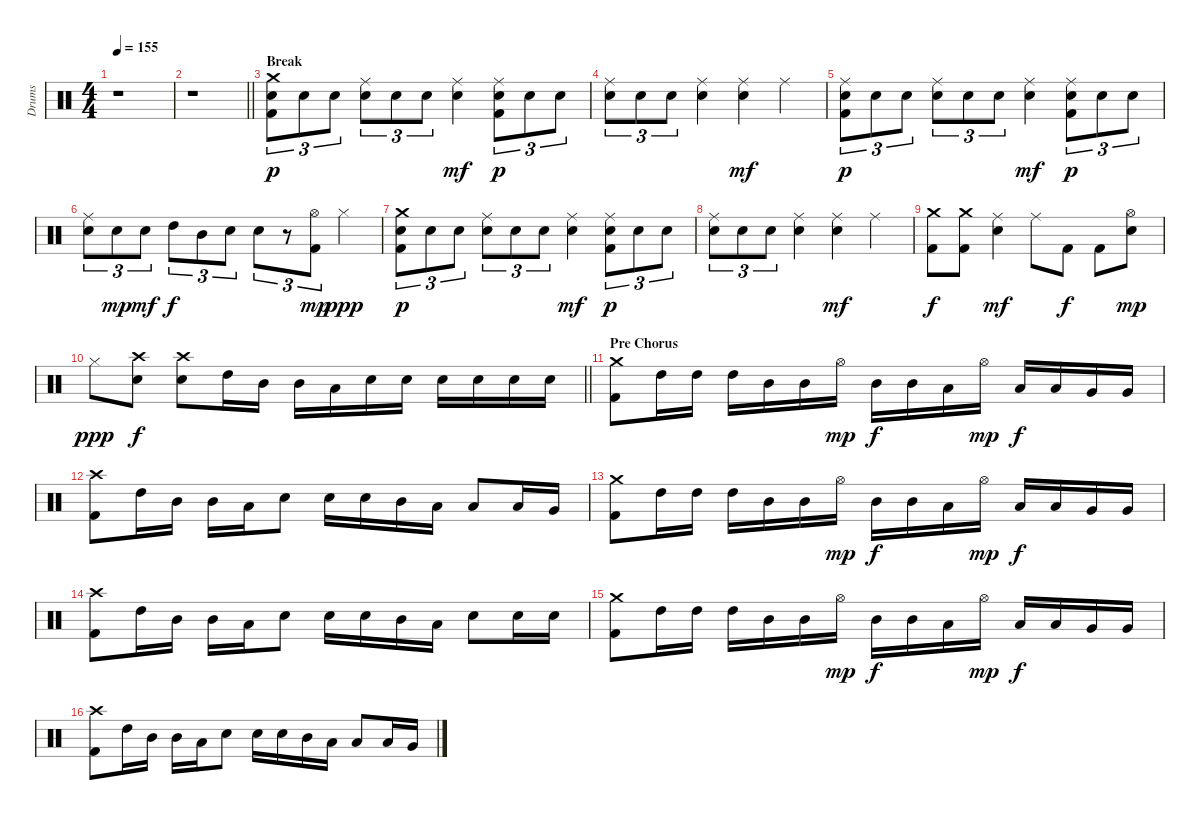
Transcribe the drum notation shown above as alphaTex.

\track ("Drums" "Drums") {instrument percussion}
\staff {score}
\articulation defaults
\ts (4 4)
\tempo 155
\clef neutral
\ks c
r.1{dy ppp} |
\barLineRight lightlight
r.1 |
\section ("" "Break")
("Crash medium (hit)" "Snare (hit) 2" "Kick (hit) 2").8{tu (3 2) dy p} "Snare (hit) 2".8{tu (3 2)} "Snare (hit) 2".8{tu (3 2)} ("Ride (middle)" "Snare (hit) 2").8{tu (3 2)} "Snare (hit) 2".8{tu (3 2)} "Snare (hit) 2".8{tu (3 2)} ("Ride (middle)" "Snare (hit) 2").4{dy mf} ("Ride (middle)" "Snare (hit) 2" "Kick (hit) 2").8{tu (3 2) dy p} "Snare (hit) 2".8{tu (3 2)} "Snare (hit) 2".8{tu (3 2)} |
("Ride (middle)" "Snare (hit) 2").8{tu (3 2)} "Snare (hit) 2".8{tu (3 2)} "Snare (hit) 2".8{tu (3 2)} ("Ride (middle)" "Snare (hit) 2").4 ("Ride (middle)" "Snare (hit) 2").4{dy mf} "Ride (middle)".4 |
("Ride (middle)" "Snare (hit) 2" "Kick (hit) 2").8{tu (3 2) dy p} "Snare (hit) 2".8{tu (3 2)} "Snare (hit) 2".8{tu (3 2)} ("Ride (middle)" "Snare (hit) 2").8{tu (3 2)} "Snare (hit) 2".8{tu (3 2)} "Snare (hit) 2".8{tu (3 2)} ("Ride (middle)" "Snare (hit) 2").4{dy mf} ("Ride (middle)" "Snare (hit) 2" "Kick (hit) 2").8{tu (3 2) dy p} "Snare (hit) 2".8{tu (3 2)} "Snare (hit) 2".8{tu (3 2)} |
("Ride (middle)" "Snare (hit) 2").8{tu (3 2)} "Snare (hit) 2".8{tu (3 2) dy mp} "Snare (hit) 2".8{tu (3 2) dy mf} "High Tom (hit)".8{tu (3 2) dy f} "Mid Tom (hit)".8{tu (3 2)} "Snare (hit) 2".8{tu (3 2)} "Snare (hit) 2".8{tu (3 2)} r.8{tu (3 2)} ("Hi-Hat (open)" "Kick (hit) 2").8{tu (3 2) dy mp} "Hi-Hat (closed)".4{dy ppp} |
("Crash medium (hit)" "Snare (hit) 2" "Kick (hit) 2").8{tu (3 2) dy p} "Snare (hit) 2".8{tu (3 2)} "Snare (hit) 2".8{tu (3 2)} ("Ride (middle)" "Snare (hit) 2").8{tu (3 2)} "Snare (hit) 2".8{tu (3 2)} "Snare (hit) 2".8{tu (3 2)} ("Ride (middle)" "Snare (hit) 2").4{dy mf} ("Ride (middle)" "Snare (hit) 2" "Kick (hit) 2").8{tu (3 2) dy p} "Snare (hit) 2".8{tu (3 2)} "Snare (hit) 2".8{tu (3 2)} |
("Ride (middle)" "Snare (hit) 2").8{tu (3 2)} "Snare (hit) 2".8{tu (3 2)} "Snare (hit) 2".8{tu (3 2)} ("Ride (middle)" "Snare (hit) 2").4 ("Ride (middle)" "Snare (hit) 2").4{dy mf} "Ride (middle)".4 |
("Crash medium (hit)" "Kick (hit) 2").8{dy f} ("Crash medium (hit)" "Kick (hit) 2").8 ("Ride (middle)" "Snare (hit) 2").4{dy mf} "Ride (middle)".8 "Kick (hit) 2".8{dy f} "Kick (hit) 2".8 ("Hi-Hat (open)" "Snare (hit) 2").8{dy mp} |
\barLineRight lightlight "Hi-Hat (closed)".8{dy ppp}
("Crash high (hit)" "Snare (hit) 2").8{dy f} ("Crash high (hit)" "Snare (hit) 2").8 "High Tom (hit)".16 "Mid Tom (hit)".16 "Mid Tom (hit)".16 "Low Tom (hit)".16 "Snare (hit) 2".16 "Snare (hit) 2".16 "Snare (hit) 2".16 "Snare (hit) 2".16 "Snare (hit) 2".16 "Snare (hit) 2".16 |
\section ("" "Pre Chorus")
("Crash medium (hit)" "Kick (hit) 2").8 "High Tom (hit)".16 "High Tom (hit)".16 "High Tom (hit)".16 "Mid Tom (hit)".16 "Mid Tom (hit)".16 "Hi-Hat (open)".16{dy mp} "Mid Tom (hit)".16{dy f} "Mid Tom (hit)".16 "Low Tom (hit)".16 "Hi-Hat (open)".16{dy mp} "Low Tom (hit)".16{dy f} "Low Tom (hit)".16 "Very Low Tom (hit)".16 "Very Low Tom (hit)".16 |
("Crash high (hit)" "Kick (hit) 2").8 "High Tom (hit)".16 "Mid Tom (hit)".16 "Mid Tom (hit)".16 "Low Tom (hit)".16 "Snare (hit) 2".8 "Snare (hit) 2".16 "Snare (hit) 2".16 "Mid Tom (hit)".16 "Low Tom (hit)".16 "Low Tom (hit)".8 "Low Tom (hit)".16 "Very Low Tom (hit)".16 |
("Crash medium (hit)" "Kick (hit) 2").8 "High Tom (hit)".16 "High Tom (hit)".16 "High Tom (hit)".16 "Mid Tom (hit)".16 "Mid Tom (hit)".16 "Hi-Hat (open)".16{dy mp} "Mid Tom (hit)".16{dy f} "Mid Tom (hit)".16 "Low Tom (hit)".16 "Hi-Hat (open)".16{dy mp} "Low Tom (hit)".16{dy f} "Low Tom (hit)".16 "Very Low Tom (hit)".16 "Very Low Tom (hit)".16 |
("Crash high (hit)" "Kick (hit) 2").8 "High Tom (hit)".16 "Mid Tom (hit)".16 "Mid Tom (hit)".16 "Low Tom (hit)".16 "Snare (hit) 2".8 "Snare (hit) 2".16 "Snare (hit) 2".16 "Mid Tom (hit)".16 "Low Tom (hit)".16 "Snare (hit) 2".8 "Snare (hit) 2".16 "Snare (hit) 2".16 |
("Crash medium (hit)" "Kick (hit) 2").8 "High Tom (hit)".16 "High Tom (hit)".16 "High Tom (hit)".16 "Mid Tom (hit)".16 "Mid Tom (hit)".16 "Hi-Hat (open)".16{dy mp} "Mid Tom (hit)".16{dy f} "Mid Tom (hit)".16 "Low Tom (hit)".16 "Hi-Hat (open)".16{dy mp} "Low Tom (hit)".16{dy f} "Low Tom (hit)".16 "Very Low Tom (hit)".16 "Very Low Tom (hit)".16 |
("Crash high (hit)" "Kick (hit) 2").8 "High Tom (hit)".16 "Mid Tom (hit)".16 "Mid Tom (hit)".16 "Low Tom (hit)".16 "Snare (hit) 2".8 "Snare (hit) 2".16 "Snare (hit) 2".16 "Mid Tom (hit)".16 "Low Tom (hit)".16 "Low Tom (hit)".8 "Low Tom (hit)".16 "Very Low Tom (hit)".16
